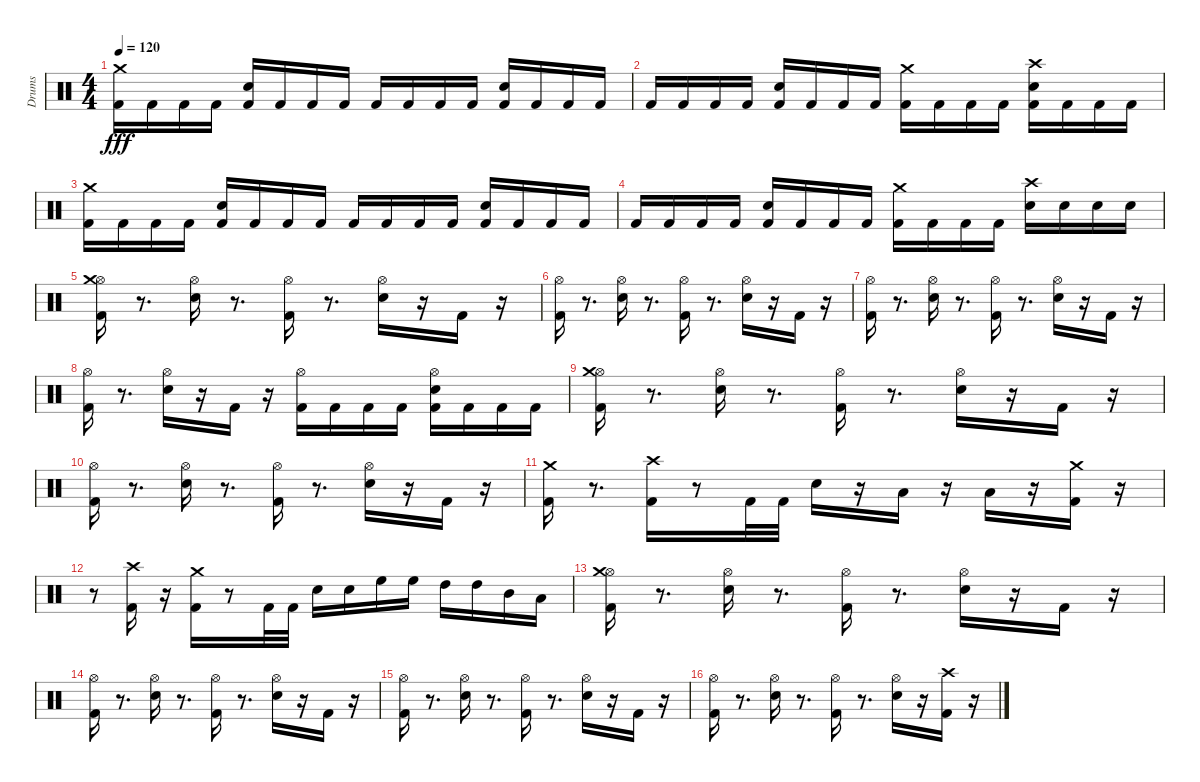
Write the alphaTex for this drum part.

\track ("Drums" "Drums") {instrument percussion}
\staff {score}
\articulation defaults
\ts (4 4)
\tempo 120
\clef neutral
\ks c
("Kick (hit) 2" "Crash medium (hit)").16{dy fff} "Kick (hit) 2".16 "Kick (hit) 2".16 "Kick (hit) 2".16 ("Kick (hit) 2" "Electric Snare (hit)").16 "Kick (hit) 2".16 "Kick (hit) 2".16 "Kick (hit) 2".16 "Kick (hit) 2".16 "Kick (hit) 2".16 "Kick (hit) 2".16 "Kick (hit) 2".16 ("Kick (hit) 2" "Electric Snare (hit)").16 "Kick (hit) 2".16 "Kick (hit) 2".16 "Kick (hit) 2".16 |
"Kick (hit) 2".16 "Kick (hit) 2".16 "Kick (hit) 2".16 "Kick (hit) 2".16 ("Kick (hit) 2" "Electric Snare (hit)").16 "Kick (hit) 2".16 "Kick (hit) 2".16 "Kick (hit) 2".16 ("Kick (hit) 2" "Crash medium (hit)").16 "Kick (hit) 2".16 "Kick (hit) 2".16 "Kick (hit) 2".16 ("Kick (hit) 2" "Electric Snare (hit)" "Crash high (hit)").16 "Kick (hit) 2".16 "Kick (hit) 2".16 "Kick (hit) 2".16 |
("Kick (hit) 2" "Crash medium (hit)").16 "Kick (hit) 2".16 "Kick (hit) 2".16 "Kick (hit) 2".16 ("Kick (hit) 2" "Electric Snare (hit)").16 "Kick (hit) 2".16 "Kick (hit) 2".16 "Kick (hit) 2".16 "Kick (hit) 2".16 "Kick (hit) 2".16 "Kick (hit) 2".16 "Kick (hit) 2".16 ("Kick (hit) 2" "Electric Snare (hit)").16 "Kick (hit) 2".16 "Kick (hit) 2".16 "Kick (hit) 2".16 |
"Kick (hit) 2".16 "Kick (hit) 2".16 "Kick (hit) 2".16 "Kick (hit) 2".16 ("Kick (hit) 2" "Electric Snare (hit)").16 "Kick (hit) 2".16 "Kick (hit) 2".16 "Kick (hit) 2".16 ("Kick (hit) 2" "Crash medium (hit)").16 "Kick (hit) 2".16 "Kick (hit) 2".16 "Kick (hit) 2".16 ("Electric Snare (hit)" "Crash high (hit)").16 "Electric Snare (hit)".16 "Electric Snare (hit)".16 "Electric Snare (hit)".16 |
("Kick (hit) 2" "Hi-Hat (open)" "Crash medium (hit)").16 r.8{d} ("Electric Snare (hit)" "Hi-Hat (open)").16 r.8{d} ("Kick (hit) 2" "Hi-Hat (open)").16 r.8{d} ("Electric Snare (hit)" "Hi-Hat (open)").16 r.16 "Kick (hit) 2".16 r.16 |
("Kick (hit) 2" "Hi-Hat (open)").16 r.8{d} ("Electric Snare (hit)" "Hi-Hat (open)").16 r.8{d} ("Kick (hit) 2" "Hi-Hat (open)").16 r.8{d} ("Electric Snare (hit)" "Hi-Hat (open)").16 r.16 "Kick (hit) 2".16 r.16 |
("Kick (hit) 2" "Hi-Hat (open)").16 r.8{d} ("Electric Snare (hit)" "Hi-Hat (open)").16 r.8{d} ("Kick (hit) 2" "Hi-Hat (open)").16 r.8{d} ("Electric Snare (hit)" "Hi-Hat (open)").16 r.16 "Kick (hit) 2".16 r.16 |
("Kick (hit) 2" "Hi-Hat (open)").16 r.8{d} ("Electric Snare (hit)" "Hi-Hat (open)").16 r.16 "Kick (hit) 2".16 r.16 ("Kick (hit) 2" "Hi-Hat (open)").16 "Kick (hit) 2".16 "Kick (hit) 2".16 "Kick (hit) 2".16 ("Electric Snare (hit)" "Kick (hit) 2" "Hi-Hat (open)").16 "Kick (hit) 2".16 "Kick (hit) 2".16 "Kick (hit) 2".16 |
("Kick (hit) 2" "Hi-Hat (open)" "Crash medium (hit)").16 r.8{d} ("Electric Snare (hit)" "Hi-Hat (open)").16 r.8{d} ("Kick (hit) 2" "Hi-Hat (open)").16 r.8{d} ("Electric Snare (hit)" "Hi-Hat (open)").16 r.16 "Kick (hit) 2".16 r.16 |
("Kick (hit) 2" "Hi-Hat (open)").16 r.8{d} ("Electric Snare (hit)" "Hi-Hat (open)").16 r.8{d} ("Kick (hit) 2" "Hi-Hat (open)").16 r.8{d} ("Electric Snare (hit)" "Hi-Hat (open)").16 r.16 "Kick (hit) 2".16 r.16 |
("Kick (hit) 2" "Crash medium (hit)").16 r.8{d} ("Kick (hit) 2" "Crash high (hit)").16 r.8 "Kick (hit) 2".32 "Kick (hit) 2".32 "Electric Snare (hit)".16 r.16 "Low Tom (hit)".16 r.16 "Low Floor Tom (hit)".16 r.16 ("Kick (hit) 2" "Crash medium (hit)").16 r.16 |
r.8 ("Kick (hit) 2" "Crash high (hit)").16 r.16 ("Kick (hit) 2" "Crash medium (hit)").16 r.8 "Kick (hit) 2".32 "Kick (hit) 2".32 "Electric Snare (hit)".16 "Electric Snare (hit)".16 "High Floor Tom (hit)".16 "High Floor Tom (hit)".16 "High Tom (hit)".16 "High Tom (hit)".16 "Mid Tom (hit)".16 "Low Tom (hit)".16 |
("Kick (hit) 2" "Hi-Hat (open)" "Crash medium (hit)").16 r.8{d} ("Electric Snare (hit)" "Hi-Hat (open)").16 r.8{d} ("Kick (hit) 2" "Hi-Hat (open)").16 r.8{d} ("Electric Snare (hit)" "Hi-Hat (open)").16 r.16 "Kick (hit) 2".16 r.16 |
("Kick (hit) 2" "Hi-Hat (open)").16 r.8{d} ("Electric Snare (hit)" "Hi-Hat (open)").16 r.8{d} ("Kick (hit) 2" "Hi-Hat (open)").16 r.8{d} ("Electric Snare (hit)" "Hi-Hat (open)").16 r.16 "Kick (hit) 2".16 r.16 |
("Kick (hit) 2" "Hi-Hat (open)").16 r.8{d} ("Electric Snare (hit)" "Hi-Hat (open)").16 r.8{d} ("Kick (hit) 2" "Hi-Hat (open)").16 r.8{d} ("Electric Snare (hit)" "Hi-Hat (open)").16 r.16 "Kick (hit) 2".16 r.16 |
("Kick (hit) 2" "Hi-Hat (open)").16 r.8{d} ("Electric Snare (hit)" "Hi-Hat (open)").16 r.8{d} ("Kick (hit) 2" "Hi-Hat (open)").16 r.8{d} ("Electric Snare (hit)" "Hi-Hat (open)").16 r.16 ("Kick (hit) 2" "Crash high (hit)").16 r.16
